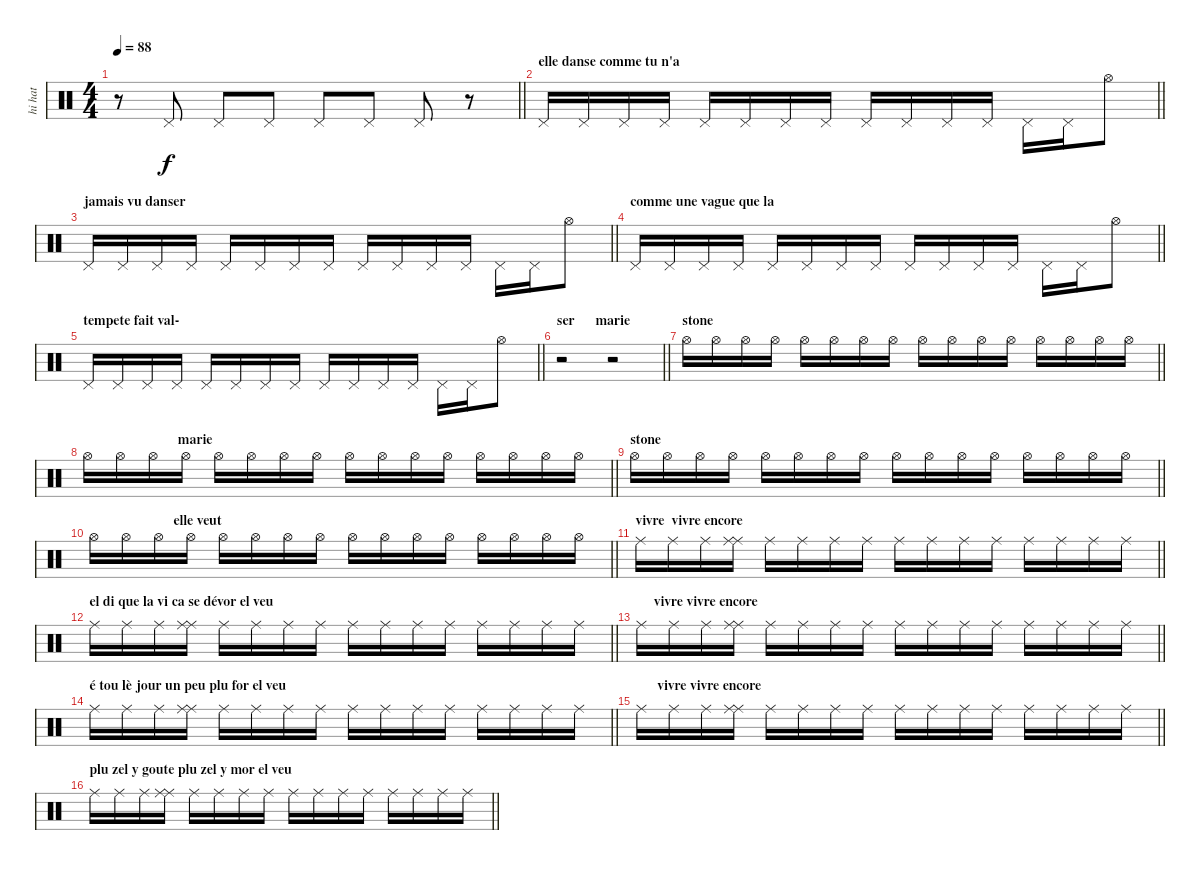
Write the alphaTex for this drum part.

\track ("hi hat" "hi hat") {instrument percussion}
\staff {score}
\articulation defaults
\ts (4 4)
\tempo 88
\clef neutral
\barLineRight lightlight
\ks c
r.8{dy f} "Pedal Hi-Hat (hit)".8 "Pedal Hi-Hat (hit)".8 "Pedal Hi-Hat (hit)".8 "Pedal Hi-Hat (hit)".8 "Pedal Hi-Hat (hit)".8 "Pedal Hi-Hat (hit)".8 r.8 |
\section ("" "elle danse comme tu n'a")
\barLineRight lightlight "Pedal Hi-Hat (hit)".16 "Pedal Hi-Hat (hit)".16 "Pedal Hi-Hat (hit)".16 "Pedal Hi-Hat (hit)".16 "Pedal Hi-Hat (hit)".16 "Pedal Hi-Hat (hit)".16 "Pedal Hi-Hat (hit)".16 "Pedal Hi-Hat (hit)".16 "Pedal Hi-Hat (hit)".16 "Pedal Hi-Hat (hit)".16 "Pedal Hi-Hat (hit)".16 "Pedal Hi-Hat (hit)".16 "Pedal Hi-Hat (hit)".16 "Pedal Hi-Hat (hit)".16 "Hi-Hat (open)".8
|
\section ("" "jamais vu danser")
\barLineRight lightlight "Pedal Hi-Hat (hit)".16 "Pedal Hi-Hat (hit)".16 "Pedal Hi-Hat (hit)".16 "Pedal Hi-Hat (hit)".16 "Pedal Hi-Hat (hit)".16 "Pedal Hi-Hat (hit)".16 "Pedal Hi-Hat (hit)".16 "Pedal Hi-Hat (hit)".16 "Pedal Hi-Hat (hit)".16 "Pedal Hi-Hat (hit)".16 "Pedal Hi-Hat (hit)".16 "Pedal Hi-Hat (hit)".16 "Pedal Hi-Hat (hit)".16 "Pedal Hi-Hat (hit)".16 "Hi-Hat (open)".8
|
\section ("" "comme une vague que la")
\barLineRight lightlight "Pedal Hi-Hat (hit)".16 "Pedal Hi-Hat (hit)".16 "Pedal Hi-Hat (hit)".16 "Pedal Hi-Hat (hit)".16 "Pedal Hi-Hat (hit)".16 "Pedal Hi-Hat (hit)".16 "Pedal Hi-Hat (hit)".16 "Pedal Hi-Hat (hit)".16 "Pedal Hi-Hat (hit)".16 "Pedal Hi-Hat (hit)".16 "Pedal Hi-Hat (hit)".16 "Pedal Hi-Hat (hit)".16 "Pedal Hi-Hat (hit)".16 "Pedal Hi-Hat (hit)".16 "Hi-Hat (open)".8
|
\section ("" "tempete fait val-")
\barLineRight lightlight "Pedal Hi-Hat (hit)".16 "Pedal Hi-Hat (hit)".16 "Pedal Hi-Hat (hit)".16 "Pedal Hi-Hat (hit)".16 "Pedal Hi-Hat (hit)".16 "Pedal Hi-Hat (hit)".16 "Pedal Hi-Hat (hit)".16 "Pedal Hi-Hat (hit)".16 "Pedal Hi-Hat (hit)".16 "Pedal Hi-Hat (hit)".16 "Pedal Hi-Hat (hit)".16 "Pedal Hi-Hat (hit)".16 "Pedal Hi-Hat (hit)".16 "Pedal Hi-Hat (hit)".16 "Hi-Hat (open)".8
|
\section ("" "ser      marie")
\barLineRight lightlight
r.2 r.2 |
\section ("" "stone")
\barLineRight lightlight "Hi-Hat (open)".16 "Hi-Hat (open)".16 "Hi-Hat (open)".16 "Hi-Hat (open)".16 "Hi-Hat (open)".16 "Hi-Hat (open)".16 "Hi-Hat (open)".16 "Hi-Hat (open)".16 "Hi-Hat (open)".16 "Hi-Hat (open)".16 "Hi-Hat (open)".16 "Hi-Hat (open)".16 "Hi-Hat (open)".16 "Hi-Hat (open)".16 "Hi-Hat (open)".16 "Hi-Hat (open)".16
|
\section ("" "                           marie")
\barLineRight lightlight "Hi-Hat (open)".16 "Hi-Hat (open)".16 "Hi-Hat (open)".16 "Hi-Hat (open)".16 "Hi-Hat (open)".16 "Hi-Hat (open)".16 "Hi-Hat (open)".16 "Hi-Hat (open)".16 "Hi-Hat (open)".16 "Hi-Hat (open)".16 "Hi-Hat (open)".16 "Hi-Hat (open)".16 "Hi-Hat (open)".16 "Hi-Hat (open)".16 "Hi-Hat (open)".16 "Hi-Hat (open)".16
|
\section ("" "stone")
\barLineRight lightlight "Hi-Hat (open)".16 "Hi-Hat (open)".16 "Hi-Hat (open)".16 "Hi-Hat (open)".16 "Hi-Hat (open)".16 "Hi-Hat (open)".16 "Hi-Hat (open)".16 "Hi-Hat (open)".16 "Hi-Hat (open)".16 "Hi-Hat (open)".16 "Hi-Hat (open)".16 "Hi-Hat (open)".16 "Hi-Hat (open)".16 "Hi-Hat (open)".16 "Hi-Hat (open)".16 "Hi-Hat (open)".16
|
\section ("" "                        elle veut")
\barLineRight lightlight "Hi-Hat (open)".16 "Hi-Hat (open)".16 "Hi-Hat (open)".16 "Hi-Hat (open)".16 "Hi-Hat (open)".16 "Hi-Hat (open)".16 "Hi-Hat (open)".16 "Hi-Hat (open)".16 "Hi-Hat (open)".16 "Hi-Hat (open)".16 "Hi-Hat (open)".16 "Hi-Hat (open)".16 "Hi-Hat (open)".16 "Hi-Hat (open)".16 "Hi-Hat (open)".16 "Hi-Hat (open)".16
|
\section ("" "vivre  vivre encore")
\barLineRight lightlight "Ride (middle)".16 "Ride (middle)".16 "Ride (middle)".16
("Ride (middle)" "Ride (middle)").16 "Ride (middle)".16 "Ride (middle)".16 "Ride (middle)".16 "Ride (middle)".16 "Ride (middle)".16 "Ride (middle)".16 "Ride (middle)".16 "Ride (middle)".16 "Ride (middle)".16 "Ride (middle)".16 "Ride (middle)".16 "Ride (middle)".16 |
\section ("" "el di que la vi ca se dévor el veu")
\barLineRight lightlight "Ride (middle)".16 "Ride (middle)".16 "Ride (middle)".16
("Ride (middle)" "Ride (middle)").16 "Ride (middle)".16 "Ride (middle)".16 "Ride (middle)".16 "Ride (middle)".16 "Ride (middle)".16 "Ride (middle)".16 "Ride (middle)".16 "Ride (middle)".16 "Ride (middle)".16 "Ride (middle)".16 "Ride (middle)".16 "Ride (middle)".16 |
\section ("" "     vivre vivre encore")
\barLineRight lightlight "Ride (middle)".16 "Ride (middle)".16 "Ride (middle)".16
("Ride (middle)" "Ride (middle)").16 "Ride (middle)".16 "Ride (middle)".16 "Ride (middle)".16 "Ride (middle)".16 "Ride (middle)".16 "Ride (middle)".16 "Ride (middle)".16 "Ride (middle)".16 "Ride (middle)".16 "Ride (middle)".16 "Ride (middle)".16 "Ride (middle)".16 |
\section ("" "é tou lè jour un peu plu for el veu")
\barLineRight lightlight "Ride (middle)".16 "Ride (middle)".16 "Ride (middle)".16
("Ride (middle)" "Ride (middle)").16 "Ride (middle)".16 "Ride (middle)".16 "Ride (middle)".16 "Ride (middle)".16 "Ride (middle)".16 "Ride (middle)".16 "Ride (middle)".16 "Ride (middle)".16 "Ride (middle)".16 "Ride (middle)".16 "Ride (middle)".16 "Ride (middle)".16 |
\section ("" "      vivre vivre encore")
\barLineRight lightlight "Ride (middle)".16 "Ride (middle)".16 "Ride (middle)".16
("Ride (middle)" "Ride (middle)").16 "Ride (middle)".16 "Ride (middle)".16 "Ride (middle)".16 "Ride (middle)".16 "Ride (middle)".16 "Ride (middle)".16 "Ride (middle)".16 "Ride (middle)".16 "Ride (middle)".16 "Ride (middle)".16 "Ride (middle)".16 "Ride (middle)".16 |
\section ("" "plu zel y goute plu zel y mor el veu")
\barLineRight lightlight "Ride (middle)".16 "Ride (middle)".16 "Ride (middle)".16
("Ride (middle)" "Ride (middle)").16 "Ride (middle)".16 "Ride (middle)".16 "Ride (middle)".16 "Ride (middle)".16 "Ride (middle)".16 "Ride (middle)".16 "Ride (middle)".16 "Ride (middle)".16 "Ride (middle)".16 "Ride (middle)".16 "Ride (middle)".16 "Ride (middle)".16
